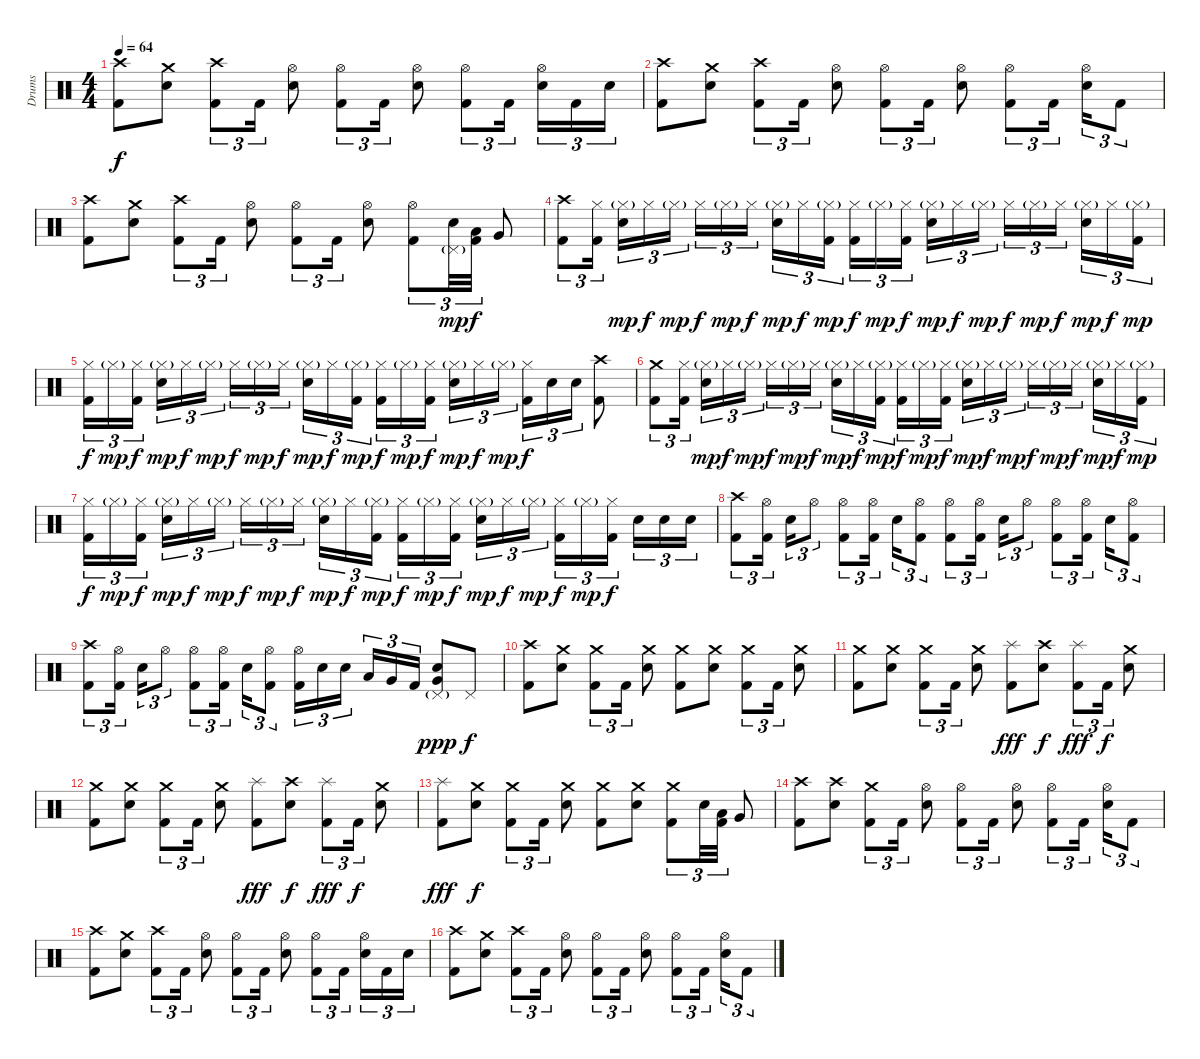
\track ("Drums" "Drums") {instrument percussion}
\staff {score}
\articulation defaults
\ts (4 4)
\tempo 64
\clef neutral
\ks c
("Crash high (hit)" "Kick (hit) 2").8{dy f} ("Crash medium (hit)" "Snare (hit) 2").8 ("Crash high (hit)" "Kick (hit) 2").8{tu (3 2)} "Kick (hit) 2".16{tu (3 2)} ("Hi-Hat (open)" "Snare (hit) 2").8 ("Hi-Hat (open)" "Kick (hit) 2").8{tu (3 2)} "Kick (hit) 2".16{tu (3 2)} ("Hi-Hat (open)" "Snare (hit) 2").8 ("Hi-Hat (open)" "Kick (hit) 2").8{tu (3 2)} "Kick (hit) 2".16{tu (3 2)} ("Hi-Hat (open)" "Snare (hit) 2").16{tu (3 2)} "Kick (hit) 2".16{tu (3 2)} "Snare (hit) 2".16{tu (3 2)} |
("Crash high (hit)" "Kick (hit) 2").8 ("Crash medium (hit)" "Snare (hit) 2").8 ("Crash high (hit)" "Kick (hit) 2").8{tu (3 2)} "Kick (hit) 2".16{tu (3 2)} ("Hi-Hat (open)" "Snare (hit) 2").8 ("Hi-Hat (open)" "Kick (hit) 2").8{tu (3 2)} "Kick (hit) 2".16{tu (3 2)} ("Hi-Hat (open)" "Snare (hit) 2").8 ("Hi-Hat (open)" "Kick (hit) 2").8{tu (3 2)} "Kick (hit) 2".16{tu (3 2)} ("Hi-Hat (open)" "Snare (hit) 2").16{tu (3 2)} "Kick (hit) 2".8{tu (3 2)} |
("Crash high (hit)" "Kick (hit) 2").8 ("Crash medium (hit)" "Snare (hit) 2").8 ("Crash high (hit)" "Kick (hit) 2").8{tu (3 2)} "Kick (hit) 2".16{tu (3 2)} ("Hi-Hat (open)" "Snare (hit) 2").8 ("Hi-Hat (open)" "Kick (hit) 2").8{tu (3 2)} "Kick (hit) 2".16{tu (3 2)} ("Hi-Hat (open)" "Snare (hit) 2").8 ("Hi-Hat (open)" "Kick (hit) 2").8{tu (3 2)} ("Pedal Hi-Hat (hit)"{g} "Snare (hit) 2").32{tu (3 2) dy mp} ("Low Tom (hit)" "Kick (hit) 2").32{tu (3 2) dy f} "Very Low Tom (hit)".8 |
("Crash high (hit)" "Kick (hit) 2").8{tu (3 2)} ("Hi-Hat (closed)" "Kick (hit) 2").16{tu (3 2)} ("Hi-Hat (closed)"{g} "Snare (hit) 2").16{tu (3 2) dy mp} "Hi-Hat (closed)".16{tu (3 2) dy f} "Hi-Hat (closed)"{g}.16{tu (3 2) dy mp} "Hi-Hat (closed)".16{tu (3 2) dy f} "Hi-Hat (closed)"{g}.16{tu (3 2) dy mp} "Hi-Hat (closed)".16{tu (3 2) dy f} ("Hi-Hat (closed)"{g} "Snare (hit) 2").16{tu (3 2) dy mp} "Hi-Hat (closed)".16{tu (3 2) dy f} ("Hi-Hat (closed)"{g} "Kick (hit) 2").16{tu (3 2) dy mp} ("Hi-Hat (closed)" "Kick (hit) 2").16{tu (3 2) dy f} "Hi-Hat (closed)"{g}.16{tu (3 2) dy mp} ("Hi-Hat (closed)" "Kick (hit) 2").16{tu (3 2) dy f} ("Hi-Hat (closed)"{g} "Snare (hit) 2").16{tu (3 2) dy mp} "Hi-Hat (closed)".16{tu (3 2) dy f} "Hi-Hat (closed)"{g}.16{tu (3 2) dy mp} "Hi-Hat (closed)".16{tu (3 2) dy f} "Hi-Hat (closed)"{g}.16{tu (3 2) dy mp} "Hi-Hat (closed)".16{tu (3 2) dy f} ("Hi-Hat (closed)"{g} "Snare (hit) 2").16{tu (3 2) dy mp} "Hi-Hat (closed)".16{tu (3 2) dy f} ("Hi-Hat (closed)"{g} "Kick (hit) 2").16{tu (3 2) dy mp} |
("Hi-Hat (closed)" "Kick (hit) 2").16{tu (3 2) dy f} "Hi-Hat (closed)"{g}.16{tu (3 2) dy mp} ("Hi-Hat (closed)" "Kick (hit) 2").16{tu (3 2) dy f} ("Hi-Hat (closed)"{g} "Snare (hit) 2").16{tu (3 2) dy mp} "Hi-Hat (closed)".16{tu (3 2) dy f} "Hi-Hat (closed)"{g}.16{tu (3 2) dy mp} "Hi-Hat (closed)".16{tu (3 2) dy f} "Hi-Hat (closed)"{g}.16{tu (3 2) dy mp} "Hi-Hat (closed)".16{tu (3 2) dy f} ("Hi-Hat (closed)"{g} "Snare (hit) 2").16{tu (3 2) dy mp} "Hi-Hat (closed)".16{tu (3 2) dy f} ("Hi-Hat (closed)"{g} "Kick (hit) 2").16{tu (3 2) dy mp} ("Hi-Hat (closed)" "Kick (hit) 2").16{tu (3 2) dy f} "Hi-Hat (closed)"{g}.16{tu (3 2) dy mp} ("Hi-Hat (closed)" "Kick (hit) 2").16{tu (3 2) dy f} ("Hi-Hat (closed)"{g} "Snare (hit) 2").16{tu (3 2) dy mp} "Hi-Hat (closed)".16{tu (3 2) dy f} "Hi-Hat (closed)"{g}.16{tu (3 2) dy mp} ("Hi-Hat (closed)" "Kick (hit) 2").16{tu (3 2) dy f} "Snare (hit) 2".16{tu (3 2)} "Snare (hit) 2".16{tu (3 2)} ("Crash high (hit)" "Kick (hit) 2").8 |
("Crash medium (hit)" "Kick (hit) 2").8{tu (3 2)} ("Hi-Hat (closed)" "Kick (hit) 2").16{tu (3 2)} ("Hi-Hat (closed)"{g} "Snare (hit) 2").16{tu (3 2) dy mp} "Hi-Hat (closed)".16{tu (3 2) dy f} "Hi-Hat (closed)"{g}.16{tu (3 2) dy mp} "Hi-Hat (closed)".16{tu (3 2) dy f} "Hi-Hat (closed)"{g}.16{tu (3 2) dy mp} "Hi-Hat (closed)".16{tu (3 2) dy f} ("Hi-Hat (closed)"{g} "Snare (hit) 2").16{tu (3 2) dy mp} "Hi-Hat (closed)".16{tu (3 2) dy f} ("Hi-Hat (closed)"{g} "Kick (hit) 2").16{tu (3 2) dy mp} ("Hi-Hat (closed)" "Kick (hit) 2").16{tu (3 2) dy f} "Hi-Hat (closed)"{g}.16{tu (3 2) dy mp} ("Hi-Hat (closed)" "Kick (hit) 2").16{tu (3 2) dy f} ("Hi-Hat (closed)"{g} "Snare (hit) 2").16{tu (3 2) dy mp} "Hi-Hat (closed)".16{tu (3 2) dy f} "Hi-Hat (closed)"{g}.16{tu (3 2) dy mp} "Hi-Hat (closed)".16{tu (3 2) dy f} "Hi-Hat (closed)"{g}.16{tu (3 2) dy mp} "Hi-Hat (closed)".16{tu (3 2) dy f} ("Hi-Hat (closed)"{g} "Snare (hit) 2").16{tu (3 2) dy mp} "Hi-Hat (closed)".16{tu (3 2) dy f} ("Hi-Hat (closed)"{g} "Kick (hit) 2").16{tu (3 2) dy mp} |
("Hi-Hat (closed)" "Kick (hit) 2").16{tu (3 2) dy f} "Hi-Hat (closed)"{g}.16{tu (3 2) dy mp} ("Hi-Hat (closed)" "Kick (hit) 2").16{tu (3 2) dy f} ("Hi-Hat (closed)"{g} "Snare (hit) 2").16{tu (3 2) dy mp} "Hi-Hat (closed)".16{tu (3 2) dy f} "Hi-Hat (closed)"{g}.16{tu (3 2) dy mp} "Hi-Hat (closed)".16{tu (3 2) dy f} "Hi-Hat (closed)"{g}.16{tu (3 2) dy mp} "Hi-Hat (closed)".16{tu (3 2) dy f} ("Hi-Hat (closed)"{g} "Snare (hit) 2").16{tu (3 2) dy mp} "Hi-Hat (closed)".16{tu (3 2) dy f} ("Hi-Hat (closed)"{g} "Kick (hit) 2").16{tu (3 2) dy mp} ("Hi-Hat (closed)" "Kick (hit) 2").16{tu (3 2) dy f} "Hi-Hat (closed)"{g}.16{tu (3 2) dy mp} ("Hi-Hat (closed)" "Kick (hit) 2").16{tu (3 2) dy f} ("Hi-Hat (closed)"{g} "Snare (hit) 2").16{tu (3 2) dy mp} "Hi-Hat (closed)".16{tu (3 2) dy f} "Hi-Hat (closed)"{g}.16{tu (3 2) dy mp} ("Hi-Hat (closed)" "Kick (hit) 2").16{tu (3 2) dy f} "Hi-Hat (closed)"{g}.16{tu (3 2) dy mp} ("Hi-Hat (closed)" "Kick (hit) 2").16{tu (3 2) dy f} "Snare (hit) 2".16{tu (3 2)} "Snare (hit) 2".16{tu (3 2)} "Snare (hit) 2".16{tu (3 2)} |
("Crash high (hit)" "Kick (hit) 2").8{tu (3 2)} ("Hi-Hat (open)" "Kick (hit) 2").16{tu (3 2)} "Snare (hit) 2".16{tu (3 2)} "Hi-Hat (open)".8{tu (3 2)} ("Hi-Hat (open)" "Kick (hit) 2").8{tu (3 2)} ("Hi-Hat (open)" "Kick (hit) 2").16{tu (3 2)} "Snare (hit) 2".16{tu (3 2)} ("Hi-Hat (open)" "Kick (hit) 2").8{tu (3 2)} ("Hi-Hat (open)" "Kick (hit) 2").8{tu (3 2)} ("Hi-Hat (open)" "Kick (hit) 2").16{tu (3 2)} "Snare (hit) 2".16{tu (3 2)} "Hi-Hat (open)".8{tu (3 2)} ("Hi-Hat (open)" "Kick (hit) 2").8{tu (3 2)} ("Hi-Hat (open)" "Kick (hit) 2").16{tu (3 2)} "Snare (hit) 2".16{tu (3 2)} ("Hi-Hat (open)" "Kick (hit) 2").8{tu (3 2)} |
("Crash high (hit)" "Kick (hit) 2").8{tu (3 2)} ("Hi-Hat (open)" "Kick (hit) 2").16{tu (3 2)} "Snare (hit) 2".16{tu (3 2)} "Hi-Hat (open)".8{tu (3 2)} ("Hi-Hat (open)" "Kick (hit) 2").8{tu (3 2)} ("Hi-Hat (open)" "Kick (hit) 2").16{tu (3 2)} "Snare (hit) 2".16{tu (3 2)} ("Hi-Hat (open)" "Kick (hit) 2").8{tu (3 2)} ("Hi-Hat (open)" "Kick (hit) 2").16{tu (3 2)} "Snare (hit) 2".16{tu (3 2)} "Snare (hit) 2".16{tu (3 2)} "Low Tom (hit)".16{tu (3 2)} "Very Low Tom (hit)".16{tu (3 2)} "Kick (hit) 2".16{tu (3 2)} ("Pedal Hi-Hat (hit)"{g} "Snare (hit) 2" "Very Low Tom (hit)").8{dy ppp} "Pedal Hi-Hat (hit)".8{dy f} |
("Crash high (hit)" "Kick (hit) 2").8 ("Crash medium (hit)" "Snare (hit) 2").8 ("Crash medium (hit)" "Kick (hit) 2").8{tu (3 2)} "Kick (hit) 2".16{tu (3 2)} ("Crash medium (hit)" "Snare (hit) 2").8 ("Crash medium (hit)" "Kick (hit) 2").8 ("Crash medium (hit)" "Snare (hit) 2").8 ("Crash medium (hit)" "Kick (hit) 2").8{tu (3 2)} "Kick (hit) 2".16{tu (3 2)} ("Crash medium (hit)" "Snare (hit) 2").8 |
("Crash medium (hit)" "Kick (hit) 2").8 ("Crash medium (hit)" "Snare (hit) 2").8 ("Crash medium (hit)" "Kick (hit) 2").8{tu (3 2)} "Kick (hit) 2".16{tu (3 2)} ("Crash medium (hit)" "Snare (hit) 2").8 ("Splash (hit)" "Kick (hit) 2").8{dy fff} ("Crash high (hit)" "Snare (hit) 2").8{dy f} ("Splash (hit)" "Kick (hit) 2").8{tu (3 2) dy fff} "Kick (hit) 2".16{tu (3 2) dy f} ("Crash medium (hit)" "Snare (hit) 2").8 |
("Crash medium (hit)" "Kick (hit) 2").8 ("Crash medium (hit)" "Snare (hit) 2").8 ("Crash medium (hit)" "Kick (hit) 2").8{tu (3 2)} "Kick (hit) 2".16{tu (3 2)} ("Crash medium (hit)" "Snare (hit) 2").8 ("Splash (hit)" "Kick (hit) 2").8{dy fff} ("Crash high (hit)" "Snare (hit) 2").8{dy f} ("Splash (hit)" "Kick (hit) 2").8{tu (3 2) dy fff} "Kick (hit) 2".16{tu (3 2) dy f} ("Crash medium (hit)" "Snare (hit) 2").8 |
("Splash (hit)" "Kick (hit) 2").8{dy fff} ("Crash medium (hit)" "Snare (hit) 2").8{dy f} ("Crash medium (hit)" "Kick (hit) 2").8{tu (3 2)} "Kick (hit) 2".16{tu (3 2)} ("Crash medium (hit)" "Snare (hit) 2").8 ("Crash medium (hit)" "Kick (hit) 2").8 ("Crash medium (hit)" "Snare (hit) 2").8 ("Crash medium (hit)" "Kick (hit) 2").8{tu (3 2)} "Snare (hit) 2".32{tu (3 2)} ("Low Tom (hit)" "Kick (hit) 2").32{tu (3 2)} "Very Low Tom (hit)".8 |
("Crash high (hit)" "Kick (hit) 2").8 ("Crash high (hit)" "Snare (hit) 2").8 ("Crash medium (hit)" "Kick (hit) 2").8{tu (3 2)} "Kick (hit) 2".16{tu (3 2)} ("Hi-Hat (open)" "Snare (hit) 2").8 ("Hi-Hat (open)" "Kick (hit) 2").8{tu (3 2)} "Kick (hit) 2".16{tu (3 2)} ("Hi-Hat (open)" "Snare (hit) 2").8 ("Hi-Hat (open)" "Kick (hit) 2").8{tu (3 2)} "Kick (hit) 2".16{tu (3 2)} ("Hi-Hat (open)" "Snare (hit) 2").16{tu (3 2)} "Kick (hit) 2".8{tu (3 2)} |
("Crash high (hit)" "Kick (hit) 2").8 ("Crash medium (hit)" "Snare (hit) 2").8 ("Crash high (hit)" "Kick (hit) 2").8{tu (3 2)} "Kick (hit) 2".16{tu (3 2)} ("Hi-Hat (open)" "Snare (hit) 2").8 ("Hi-Hat (open)" "Kick (hit) 2").8{tu (3 2)} "Kick (hit) 2".16{tu (3 2)} ("Hi-Hat (open)" "Snare (hit) 2").8 ("Hi-Hat (open)" "Kick (hit) 2").8{tu (3 2)} "Kick (hit) 2".16{tu (3 2)} ("Hi-Hat (open)" "Snare (hit) 2").16{tu (3 2)} "Kick (hit) 2".16{tu (3 2)} "Snare (hit) 2".16{tu (3 2)} |
("Crash high (hit)" "Kick (hit) 2").8 ("Crash medium (hit)" "Snare (hit) 2").8 ("Crash high (hit)" "Kick (hit) 2").8{tu (3 2)} "Kick (hit) 2".16{tu (3 2)} ("Hi-Hat (open)" "Snare (hit) 2").8 ("Hi-Hat (open)" "Kick (hit) 2").8{tu (3 2)} "Kick (hit) 2".16{tu (3 2)} ("Hi-Hat (open)" "Snare (hit) 2").8 ("Hi-Hat (open)" "Kick (hit) 2").8{tu (3 2)} "Kick (hit) 2".16{tu (3 2)} ("Hi-Hat (open)" "Snare (hit) 2").16{tu (3 2)} "Kick (hit) 2".8{tu (3 2)}
